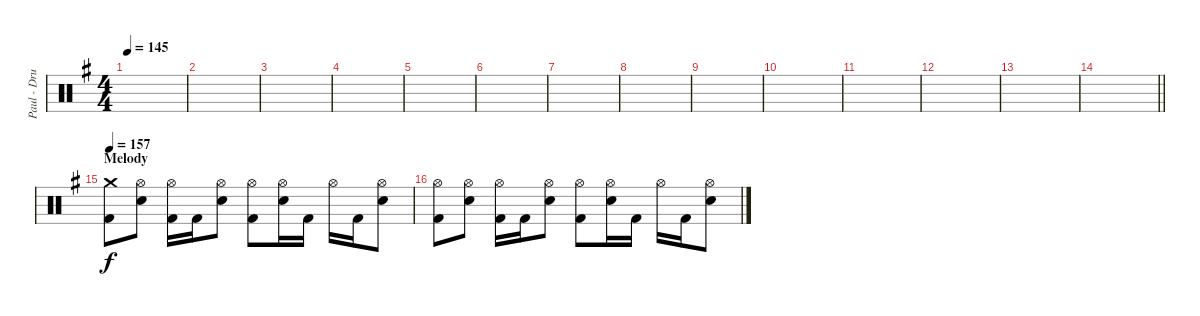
\track ("Paul - Drums" "Paul - Dru") {instrument percussion}
\staff {score}
\articulation defaults
\ts (4 4)
\tempo 145
\clef neutral
\ks g
|
|
|
|
|
|
|
|
|
|
|
|
|
\barLineRight lightlight
|
\section ("" "Melody")
\tempo 157
("Crash medium (hit)" "Kick (hit) 2").8{dy f} ("Hi-Hat (open)" "Electric Snare (hit)").8 ("Hi-Hat (open)" "Kick (hit) 2").16 "Kick (hit) 2".16 ("Hi-Hat (open)" "Electric Snare (hit)").8 ("Hi-Hat (open)" "Kick (hit) 2").8 ("Hi-Hat (open)" "Electric Snare (hit)").16 "Kick (hit) 2".16 "Hi-Hat (open)".16 "Kick (hit) 2".16 ("Hi-Hat (open)" "Electric Snare (hit)").8 |
("Hi-Hat (open)" "Kick (hit) 2").8 ("Hi-Hat (open)" "Electric Snare (hit)").8 ("Hi-Hat (open)" "Kick (hit) 2").16 "Kick (hit) 2".16 ("Hi-Hat (open)" "Electric Snare (hit)").8 ("Hi-Hat (open)" "Kick (hit) 2").8 ("Hi-Hat (open)" "Electric Snare (hit)").16 "Kick (hit) 2".16 "Hi-Hat (open)".16 "Kick (hit) 2".16 ("Hi-Hat (open)" "Electric Snare (hit)").8
